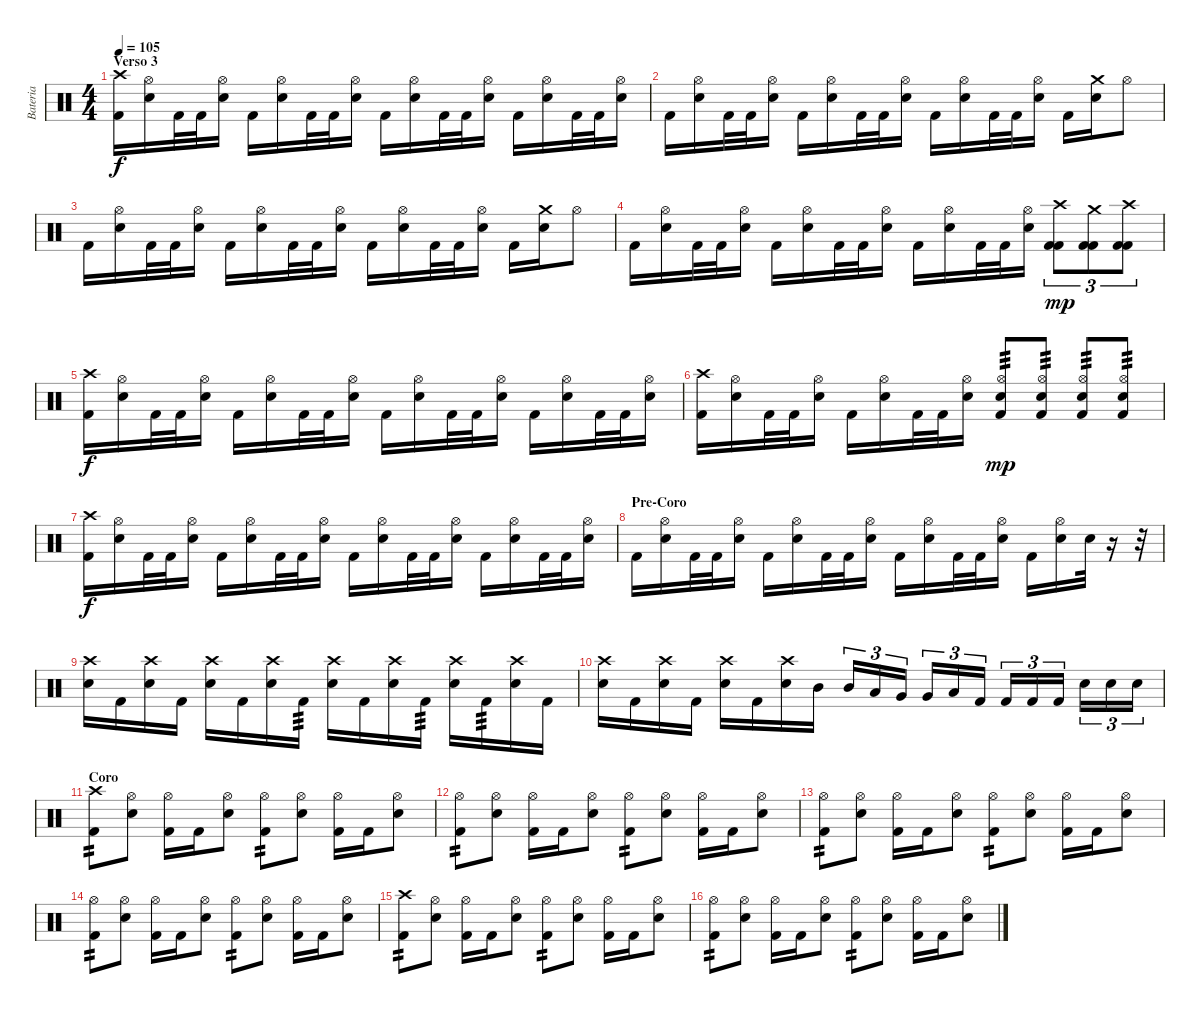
\track ("Bateria" "Bateria") {instrument percussion}
\staff {score}
\articulation defaults
\ts (4 4)
\section ("" "Verso 3")
\tempo 105
\clef neutral
\ks c
("Crash high (hit)" "Kick (hit) 2").16{dy f} ("Hi-Hat (open)" "Electric Snare (hit)").16 "Kick (hit) 2".32 "Kick (hit) 2".32 ("Hi-Hat (open)" "Electric Snare (hit)").16 "Kick (hit) 2".16 ("Hi-Hat (open)" "Electric Snare (hit)").16 "Kick (hit) 2".32 "Kick (hit) 2".32 ("Hi-Hat (open)" "Electric Snare (hit)").16 "Kick (hit) 2".16 ("Hi-Hat (open)" "Electric Snare (hit)").16 "Kick (hit) 2".32 "Kick (hit) 2".32 ("Hi-Hat (open)" "Electric Snare (hit)").16 "Kick (hit) 2".16 ("Hi-Hat (open)" "Electric Snare (hit)").16 "Kick (hit) 2".32 "Kick (hit) 2".32 ("Hi-Hat (open)" "Electric Snare (hit)").16 |
"Kick (hit) 2".16 ("Hi-Hat (open)" "Electric Snare (hit)").16 "Kick (hit) 2".32 "Kick (hit) 2".32 ("Hi-Hat (open)" "Electric Snare (hit)").16 "Kick (hit) 2".16 ("Hi-Hat (open)" "Electric Snare (hit)").16 "Kick (hit) 2".32 "Kick (hit) 2".32 ("Hi-Hat (open)" "Electric Snare (hit)").16 "Kick (hit) 2".16 ("Hi-Hat (open)" "Electric Snare (hit)").16 "Kick (hit) 2".32 "Kick (hit) 2".32 ("Hi-Hat (open)" "Electric Snare (hit)").16 "Kick (hit) 2".16 ("Crash medium (hit)" "Electric Snare (hit)").16 "Hi-Hat (open)".8 |
"Kick (hit) 2".16 ("Hi-Hat (open)" "Electric Snare (hit)").16 "Kick (hit) 2".32 "Kick (hit) 2".32 ("Hi-Hat (open)" "Electric Snare (hit)").16 "Kick (hit) 2".16 ("Hi-Hat (open)" "Electric Snare (hit)").16 "Kick (hit) 2".32 "Kick (hit) 2".32 ("Hi-Hat (open)" "Electric Snare (hit)").16 "Kick (hit) 2".16 ("Hi-Hat (open)" "Electric Snare (hit)").16 "Kick (hit) 2".32 "Kick (hit) 2".32 ("Hi-Hat (open)" "Electric Snare (hit)").16 "Kick (hit) 2".16 ("Crash medium (hit)" "Electric Snare (hit)").16 "Hi-Hat (open)".8 |
"Kick (hit) 2".16 ("Hi-Hat (open)" "Electric Snare (hit)").16 "Kick (hit) 2".32 "Kick (hit) 2".32 ("Hi-Hat (open)" "Electric Snare (hit)").16 "Kick (hit) 2".16 ("Hi-Hat (open)" "Electric Snare (hit)").16 "Kick (hit) 2".32 "Kick (hit) 2".32 ("Hi-Hat (open)" "Electric Snare (hit)").16 "Kick (hit) 2".16 ("Hi-Hat (open)" "Electric Snare (hit)").16 "Kick (hit) 2".32 "Kick (hit) 2".32 ("Hi-Hat (open)" "Electric Snare (hit)").16 ("Kick (hit) 2" "Kick (hit) 2" "Crash high (hit)").8{tu (3 2) dy mp} ("Kick (hit) 2" "Kick (hit) 2" "Crash medium (hit)").8{tu (3 2)} ("Kick (hit) 2" "Kick (hit) 2" "Crash high (hit)").8{tu (3 2)} |
("Crash high (hit)" "Kick (hit) 2").16{dy f} ("Hi-Hat (open)" "Electric Snare (hit)").16 "Kick (hit) 2".32 "Kick (hit) 2".32 ("Hi-Hat (open)" "Electric Snare (hit)").16 "Kick (hit) 2".16 ("Hi-Hat (open)" "Electric Snare (hit)").16 "Kick (hit) 2".32 "Kick (hit) 2".32 ("Hi-Hat (open)" "Electric Snare (hit)").16 "Kick (hit) 2".16 ("Hi-Hat (open)" "Electric Snare (hit)").16 "Kick (hit) 2".32 "Kick (hit) 2".32 ("Hi-Hat (open)" "Electric Snare (hit)").16 "Kick (hit) 2".16 ("Hi-Hat (open)" "Electric Snare (hit)").16 "Kick (hit) 2".32 "Kick (hit) 2".32 ("Hi-Hat (open)" "Electric Snare (hit)").16 |
("Crash high (hit)" "Kick (hit) 2").16 ("Hi-Hat (open)" "Electric Snare (hit)").16 "Kick (hit) 2".32 "Kick (hit) 2".32 ("Hi-Hat (open)" "Electric Snare (hit)").16 "Kick (hit) 2".16 ("Hi-Hat (open)" "Electric Snare (hit)").16 "Kick (hit) 2".32 "Kick (hit) 2".32 ("Hi-Hat (open)" "Electric Snare (hit)").16 ("Hi-Hat (open)" "Kick (hit) 2" "Electric Snare (hit)").8{tp 3 dy mp} ("Hi-Hat (open)" "Kick (hit) 2" "Electric Snare (hit)").8{tp 3} ("Hi-Hat (open)" "Kick (hit) 2" "Electric Snare (hit)").8{tp 3} ("Hi-Hat (open)" "Kick (hit) 2" "Electric Snare (hit)").8{tp 3} |
("Crash high (hit)" "Kick (hit) 2").16{dy f} ("Hi-Hat (open)" "Electric Snare (hit)").16 "Kick (hit) 2".32 "Kick (hit) 2".32 ("Hi-Hat (open)" "Electric Snare (hit)").16 "Kick (hit) 2".16 ("Hi-Hat (open)" "Electric Snare (hit)").16 "Kick (hit) 2".32 "Kick (hit) 2".32 ("Hi-Hat (open)" "Electric Snare (hit)").16 "Kick (hit) 2".16 ("Hi-Hat (open)" "Electric Snare (hit)").16 "Kick (hit) 2".32 "Kick (hit) 2".32 ("Hi-Hat (open)" "Electric Snare (hit)").16 "Kick (hit) 2".16 ("Hi-Hat (open)" "Electric Snare (hit)").16 "Kick (hit) 2".32 "Kick (hit) 2".32 ("Hi-Hat (open)" "Electric Snare (hit)").16 |
\section ("" "Pre-Coro")
"Kick (hit) 2".16 ("Hi-Hat (open)" "Electric Snare (hit)").16 "Kick (hit) 2".32 "Kick (hit) 2".32 ("Hi-Hat (open)" "Electric Snare (hit)").16 "Kick (hit) 2".16 ("Hi-Hat (open)" "Electric Snare (hit)").16 "Kick (hit) 2".32 "Kick (hit) 2".32 ("Hi-Hat (open)" "Electric Snare (hit)").16 "Kick (hit) 2".16 ("Hi-Hat (open)" "Electric Snare (hit)").16 "Kick (hit) 2".32 "Kick (hit) 2".32 ("Hi-Hat (open)" "Electric Snare (hit)").16 "Kick (hit) 2".16 ("Hi-Hat (open)" "Electric Snare (hit)").16 "Electric Snare (hit)".32 r.16 r.32 |
("Electric Snare (hit)" "Crash high (hit)").16 "Kick (hit) 2".16 ("Electric Snare (hit)" "Crash high (hit)").16 "Kick (hit) 2".16 ("Electric Snare (hit)" "Crash high (hit)").16 "Kick (hit) 2".16 ("Electric Snare (hit)" "Crash high (hit)").16 "Kick (hit) 2".16{tp 3} ("Electric Snare (hit)" "Crash high (hit)").16 "Kick (hit) 2".16 ("Crash high (hit)" "Electric Snare (hit)").16 "Kick (hit) 2".16{tp 3} ("Crash high (hit)" "Electric Snare (hit)").16 "Kick (hit) 2".16{tp 3} ("Crash high (hit)" "Electric Snare (hit)").16 "Kick (hit) 2".16 |
("Electric Snare (hit)" "Crash high (hit)").16 "Kick (hit) 2".16 ("Electric Snare (hit)" "Crash high (hit)").16 "Kick (hit) 2".16 ("Electric Snare (hit)" "Crash high (hit)").16 "Kick (hit) 2".16 ("Electric Snare (hit)" "Crash high (hit)").16 "Mid Tom (hit)".16 "Mid Tom (hit)".16{tu (3 2)} "Low Tom (hit)".16{tu (3 2)} "Very Low Tom (hit)".16{tu (3 2)} "Very Low Tom (hit)".16{tu (3 2)} "Low Floor Tom (hit)".16{tu (3 2)} "Kick (hit) 2".16{tu (3 2)} "Kick (hit) 2".16{tu (3 2)} "Kick (hit) 2".16{tu (3 2)} "Kick (hit) 2".16{tu (3 2)} "Electric Snare (hit)".16{tu (3 2)} "Electric Snare (hit)".16{tu (3 2)} "Electric Snare (hit)".16{tu (3 2)} |
\section ("" "Coro")
("Crash high (hit)" "Kick (hit) 2").8{tp 2} ("Hi-Hat (open)" "Electric Snare (hit)").8 ("Hi-Hat (open)" "Kick (hit) 2").16 "Kick (hit) 2".16 ("Hi-Hat (open)" "Electric Snare (hit)").8 ("Hi-Hat (open)" "Kick (hit) 2").8{tp 2} ("Hi-Hat (open)" "Electric Snare (hit)").8 ("Hi-Hat (open)" "Kick (hit) 2").16 "Kick (hit) 2".16 ("Hi-Hat (open)" "Electric Snare (hit)").8 |
("Hi-Hat (open)" "Kick (hit) 2").8{tp 2} ("Hi-Hat (open)" "Electric Snare (hit)").8 ("Hi-Hat (open)" "Kick (hit) 2").16 "Kick (hit) 2".16 ("Hi-Hat (open)" "Electric Snare (hit)").8 ("Hi-Hat (open)" "Kick (hit) 2").8{tp 2} ("Hi-Hat (open)" "Electric Snare (hit)").8 ("Hi-Hat (open)" "Kick (hit) 2").16 "Kick (hit) 2".16 ("Hi-Hat (open)" "Electric Snare (hit)").8 |
("Hi-Hat (open)" "Kick (hit) 2").8{tp 2} ("Hi-Hat (open)" "Electric Snare (hit)").8 ("Hi-Hat (open)" "Kick (hit) 2").16 "Kick (hit) 2".16 ("Hi-Hat (open)" "Electric Snare (hit)").8 ("Hi-Hat (open)" "Kick (hit) 2").8{tp 2} ("Hi-Hat (open)" "Electric Snare (hit)").8 ("Hi-Hat (open)" "Kick (hit) 2").16 "Kick (hit) 2".16 ("Hi-Hat (open)" "Electric Snare (hit)").8 |
("Hi-Hat (open)" "Kick (hit) 2").8{tp 2} ("Hi-Hat (open)" "Electric Snare (hit)").8 ("Hi-Hat (open)" "Kick (hit) 2").16 "Kick (hit) 2".16 ("Hi-Hat (open)" "Electric Snare (hit)").8 ("Hi-Hat (open)" "Kick (hit) 2").8{tp 2} ("Hi-Hat (open)" "Electric Snare (hit)").8 ("Hi-Hat (open)" "Kick (hit) 2").16 "Kick (hit) 2".16 ("Hi-Hat (open)" "Electric Snare (hit)").8 |
("Crash high (hit)" "Kick (hit) 2").8{tp 2} ("Hi-Hat (open)" "Electric Snare (hit)").8 ("Hi-Hat (open)" "Kick (hit) 2").16 "Kick (hit) 2".16 ("Hi-Hat (open)" "Electric Snare (hit)").8 ("Hi-Hat (open)" "Kick (hit) 2").8{tp 2} ("Hi-Hat (open)" "Electric Snare (hit)").8 ("Hi-Hat (open)" "Kick (hit) 2").16 "Kick (hit) 2".16 ("Hi-Hat (open)" "Electric Snare (hit)").8 |
("Hi-Hat (open)" "Kick (hit) 2").8{tp 2} ("Hi-Hat (open)" "Electric Snare (hit)").8 ("Hi-Hat (open)" "Kick (hit) 2").16 "Kick (hit) 2".16 ("Hi-Hat (open)" "Electric Snare (hit)").8 ("Hi-Hat (open)" "Kick (hit) 2").8{tp 2} ("Hi-Hat (open)" "Electric Snare (hit)").8 ("Hi-Hat (open)" "Kick (hit) 2").16 "Kick (hit) 2".16 ("Hi-Hat (open)" "Electric Snare (hit)").8
